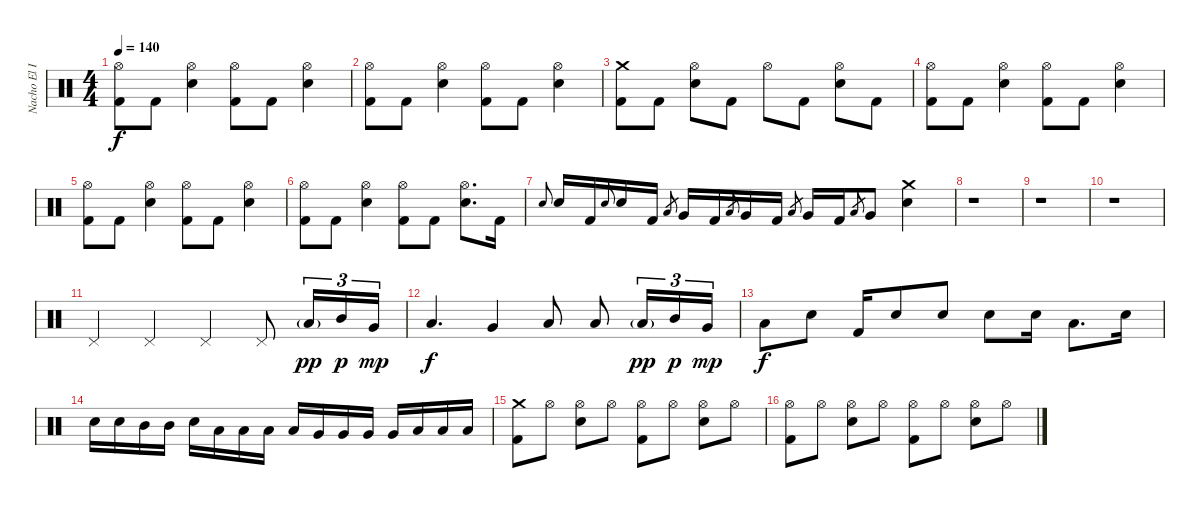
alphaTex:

\track ("Nacho El Implacable Gonzalez" "Nacho El I") {instrument percussion}
\staff {score}
\articulation defaults
\ts (4 4)
\tempo 140
\clef neutral
\ks c
("Hi-Hat (open)" "Kick (hit) 2").8{dy f} "Kick (hit) 2".8 ("Hi-Hat (open)" "Electric Snare (hit)").4 ("Hi-Hat (open)" "Kick (hit) 2").8 "Kick (hit) 2".8 ("Hi-Hat (open)" "Electric Snare (hit)").4 |
("Hi-Hat (open)" "Kick (hit) 2").8 "Kick (hit) 2".8 ("Hi-Hat (open)" "Electric Snare (hit)").4 ("Hi-Hat (open)" "Kick (hit) 2").8 "Kick (hit) 2".8 ("Hi-Hat (open)" "Electric Snare (hit)").4 |
("Crash medium (hit)" "Kick (hit) 2").8 "Kick (hit) 2".8 ("Hi-Hat (open)" "Electric Snare (hit)").8 "Kick (hit) 2".8 "Hi-Hat (open)".8 "Kick (hit) 2".8 ("Hi-Hat (open)" "Electric Snare (hit)").8 "Kick (hit) 2".8 |
("Hi-Hat (open)" "Kick (hit) 2").8 "Kick (hit) 2".8 ("Hi-Hat (open)" "Electric Snare (hit)").4 ("Hi-Hat (open)" "Kick (hit) 2").8 "Kick (hit) 2".8 ("Hi-Hat (open)" "Electric Snare (hit)").4 |
("Hi-Hat (open)" "Kick (hit) 2").8 "Kick (hit) 2".8 ("Hi-Hat (open)" "Electric Snare (hit)").4 ("Hi-Hat (open)" "Kick (hit) 2").8 "Kick (hit) 2".8 ("Hi-Hat (open)" "Electric Snare (hit)").4 |
("Hi-Hat (open)" "Kick (hit) 2").8 "Kick (hit) 2".8 ("Hi-Hat (open)" "Electric Snare (hit)").4 ("Hi-Hat (open)" "Kick (hit) 2").8 "Kick (hit) 2".8 ("Hi-Hat (open)" "Electric Snare (hit)").8{d} "Kick (hit) 2".16 |
"Electric Snare (hit)".8{gr onbeat} "Electric Snare (hit)".16 "Kick (hit) 2".16 "Electric Snare (hit)".8{gr onbeat} "Electric Snare (hit)".16 "Kick (hit) 2".16 "Low Tom (hit)".8{gr} "Very Low Tom (hit)".16 "Kick (hit) 2".16 "Low Tom (hit)".8{gr} "Very Low Tom (hit)".16 "Kick (hit) 2".16 "Low Tom (hit)".8{gr} "Very Low Tom (hit)".16 "Kick (hit) 2".16 "Low Tom (hit)".8{gr} "Very Low Tom (hit)".8 ("Crash medium (hit)" "Electric Snare (hit)").4 |
r.1 |
r.1 |
r.1 |
"Pedal Hi-Hat (hit)".4 "Pedal Hi-Hat (hit)".4 "Pedal Hi-Hat (hit)".4 "Pedal Hi-Hat (hit)".8 "Low Tom (hit)"{g}.16{tu (3 2) dy pp} "Mid Tom (hit)".16{tu (3 2) dy p} "Very Low Tom (hit)".16{tu (3 2) dy mp} |
"Low Tom (hit)".4{d dy f} "Very Low Tom (hit)".4 "Low Floor Tom (hit)".8 "Low Floor Tom (hit)".8 "Low Tom (hit)"{g}.16{tu (3 2) dy pp} "Mid Tom (hit)".16{tu (3 2) dy p} "Very Low Tom (hit)".16{tu (3 2) dy mp} |
"Low Tom (hit)".8{dy f} "Electric Snare (hit)".8 "Kick (hit) 2".16 "Electric Snare (hit)".8 "Electric Snare (hit)".8 "Electric Snare (hit)".8 "Electric Snare (hit)".16 "Low Tom (hit)".8{d} "Electric Snare (hit)".16 |
"Electric Snare (hit)".16 "Electric Snare (hit)".16 "Mid Tom (hit)".16 "Mid Tom (hit)".16 "Electric Snare (hit)".16 "Low Tom (hit)".16 "Low Tom (hit)".16 "Low Tom (hit)".16 "Low Tom (hit)".16 "Very Low Tom (hit)".16 "Very Low Tom (hit)".16 "Very Low Tom (hit)".16 "Very Low Tom (hit)".16 "Low Floor Tom (hit)".16 "Low Floor Tom (hit)".16 "Low Floor Tom (hit)".16 |
("Crash medium (hit)" "Kick (hit) 2").8 "Hi-Hat (open)".8 ("Hi-Hat (open)" "Electric Snare (hit)").8 "Hi-Hat (open)".8 ("Hi-Hat (open)" "Kick (hit) 2").8 "Hi-Hat (open)".8 ("Hi-Hat (open)" "Electric Snare (hit)").8 "Hi-Hat (open)".8 |
("Hi-Hat (open)" "Kick (hit) 2").8 "Hi-Hat (open)".8 ("Hi-Hat (open)" "Electric Snare (hit)").8 "Hi-Hat (open)".8 ("Hi-Hat (open)" "Kick (hit) 2").8 "Hi-Hat (open)".8 ("Hi-Hat (open)" "Electric Snare (hit)").8 "Hi-Hat (open)".8
